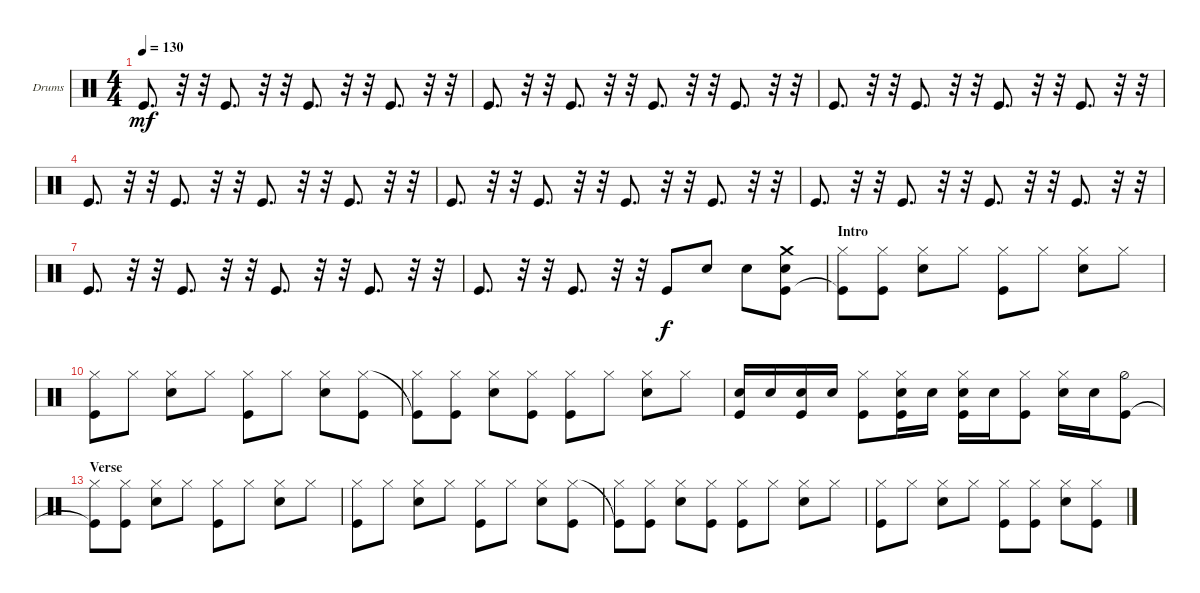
\bracketExtendMode nobrackets
\firstSystemTrackNameOrientation horizontal
\otherSystemsTrackNameOrientation horizontal
\defaultBarNumberDisplay FirstOfSystem
\track ("Drumkit" "Drums") {instrument percussion}
\staff {score}
\articulation defaults
\ts (4 4)
\scale
0.28
\tempo 130
\accidentals auto
\clef neutral
\ottava regular
\simile none
\ks c "Kick (hit)".8{d dy mf}
r.32 r.32 "Kick (hit)".8{d} r.32 r.32 "Kick (hit)".8{d} r.32 r.32 "Kick (hit)".8{d} r.32 r.32 |
\scale
0.28 "Kick (hit)".8{d} r.32 r.32 "Kick (hit)".8{d} r.32 r.32 "Kick (hit)".8{d} r.32 r.32 "Kick (hit)".8{d} r.32 r.32 |
\scale
0.333333 "Kick (hit)".8{d} r.32 r.32 "Kick (hit)".8{d} r.32 r.32 "Kick (hit)".8{d} r.32 r.32 "Kick (hit)".8{d} r.32 r.32 |
\scale
0.333333 "Kick (hit)".8{d} r.32 r.32 "Kick (hit)".8{d} r.32 r.32 "Kick (hit)".8{d} r.32 r.32 "Kick (hit)".8{d} r.32 r.32 |
\scale
0.333333 "Kick (hit)".8{d} r.32 r.32 "Kick (hit)".8{d} r.32 r.32 "Kick (hit)".8{d} r.32 r.32 "Kick (hit)".8{d} r.32 r.32 |
\scale
0.363636 "Kick (hit)".8{d} r.32 r.32 "Kick (hit)".8{d} r.32 r.32 "Kick (hit)".8{d} r.32 r.32 "Kick (hit)".8{d} r.32 r.32 |
\scale
0.318182
\scale
0.511628 "Kick (hit)".8{d} r.32 r.32 "Kick (hit)".8{d} r.32 r.32 "Kick (hit)".8{d} r.32 r.32 "Kick (hit)".8{d} r.32 r.32 |
\scale
0.318182
\scale
0.488372 "Kick (hit)".8{d} r.32 r.32 "Kick (hit)".8{d} r.32 r.32 "Kick (hit)".8{dy f} "Snare (hit) 2".8 "Snare (hit) 2".8 ("Kick (hit)" "Crash medium (hit)" "Snare (hit) 2").8 |
\section ("" "Intro")
\scale
0.333333 ("Kick (hit)"{t} "Hi-Hat (closed)").8 ("Kick (hit)" "Hi-Hat (closed)").8 ("Snare (hit) 2" "Hi-Hat (closed)").8 "Hi-Hat (closed)".8 ("Kick (hit)" "Hi-Hat (closed)").8 "Hi-Hat (closed)".8 ("Snare (hit) 2" "Hi-Hat (closed)").8 "Hi-Hat (closed)".8 |
\scale
0.333333 ("Kick (hit)" "Hi-Hat (closed)").8 "Hi-Hat (closed)".8 ("Snare (hit) 2" "Hi-Hat (closed)").8 "Hi-Hat (closed)".8 ("Kick (hit)" "Hi-Hat (closed)").8 "Hi-Hat (closed)".8 ("Snare (hit) 2" "Hi-Hat (closed)").8 ("Kick (hit)" "Hi-Hat (closed)").8 |
\scale
0.333333 ("Hi-Hat (closed)" "Kick (hit)"{t}).8 ("Kick (hit)" "Hi-Hat (closed)").8 ("Snare (hit) 2" "Hi-Hat (closed)").8 ("Kick (hit)" "Hi-Hat (closed)").8 ("Kick (hit)" "Hi-Hat (closed)").8 "Hi-Hat (closed)".8 ("Snare (hit) 2" "Hi-Hat (closed)").8 "Hi-Hat (closed)".8 |
\scale
0.333333 ("Snare (hit) 2" "Kick (hit)").16 "Snare (hit) 2".16 ("Snare (hit) 2" "Kick (hit)").16 "Snare (hit) 2".16 ("Kick (hit)" "Hi-Hat (closed)").8 ("Snare (hit) 2" "Hi-Hat (closed)" "Kick (hit)").16 "Snare (hit) 2".16 ("Snare (hit) 2" "Kick (hit)" "Hi-Hat (closed)").16 "Snare (hit) 2".16 ("Kick (hit)" "Hi-Hat (closed)").8 ("Hi-Hat (closed)" "Snare (hit) 2").16 "Snare (hit) 2".16 ("Kick (hit)" "Hi-Hat (half)").8 |
\section ("" "Verse")
\scale
0.333333 ("Kick (hit)"{t} "Hi-Hat (closed)").8 ("Kick (hit)" "Hi-Hat (closed)").8 ("Snare (hit) 2" "Hi-Hat (closed)").8 "Hi-Hat (closed)".8 ("Kick (hit)" "Hi-Hat (closed)").8 "Hi-Hat (closed)".8 ("Snare (hit) 2" "Hi-Hat (closed)").8 "Hi-Hat (closed)".8 |
\scale
0.333333 ("Kick (hit)" "Hi-Hat (closed)").8 "Hi-Hat (closed)".8 ("Snare (hit) 2" "Hi-Hat (closed)").8 "Hi-Hat (closed)".8 ("Kick (hit)" "Hi-Hat (closed)").8 "Hi-Hat (closed)".8 ("Snare (hit) 2" "Hi-Hat (closed)").8 ("Kick (hit)" "Hi-Hat (closed)").8 |
\scale
0.44 ("Hi-Hat (closed)" "Kick (hit)"{t}).8 ("Kick (hit)" "Hi-Hat (closed)").8 ("Snare (hit) 2" "Hi-Hat (closed)").8 ("Kick (hit)" "Hi-Hat (closed)").8 ("Kick (hit)" "Hi-Hat (closed)").8 "Hi-Hat (closed)".8 ("Snare (hit) 2" "Hi-Hat (closed)").8 "Hi-Hat (closed)".8 |
\scale
0.28 ("Kick (hit)" "Hi-Hat (closed)").8 "Hi-Hat (closed)".8 ("Snare (hit) 2" "Hi-Hat (closed)").8 "Hi-Hat (closed)".8 ("Kick (hit)" "Hi-Hat (closed)").8 ("Kick (hit)" "Hi-Hat (closed)").8 ("Snare (hit) 2" "Hi-Hat (closed)").8 ("Kick (hit)" "Hi-Hat (closed)").8
